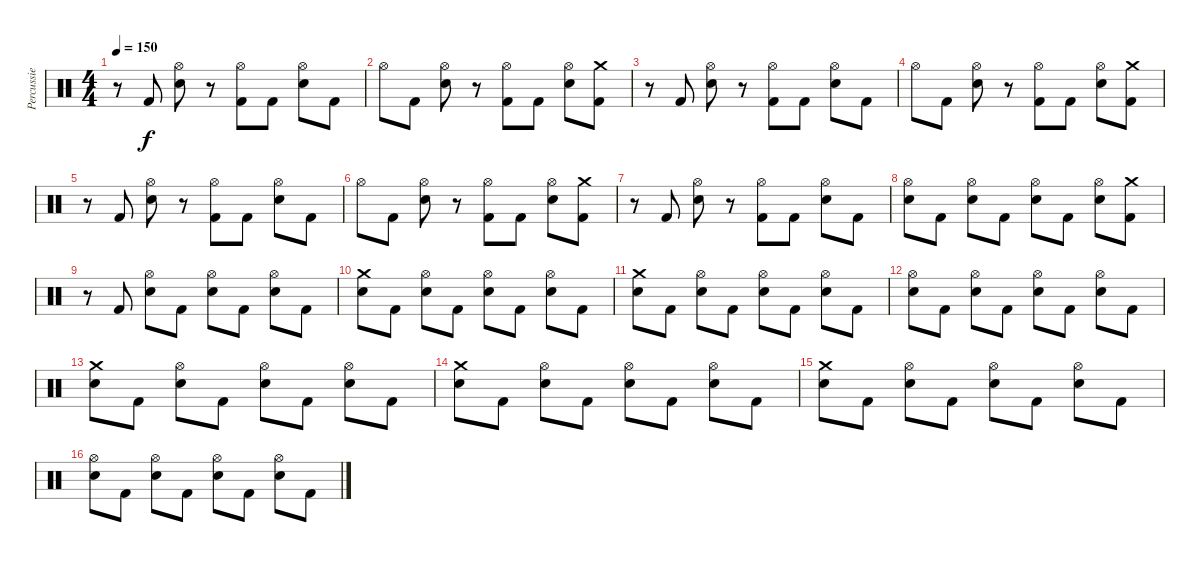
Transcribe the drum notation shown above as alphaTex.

\track ("Percussie" "Percussie") {instrument percussion}
\staff {score}
\articulation defaults
\ts (4 4)
\tempo 150
\clef neutral
\ks c
r.8{dy f} "Kick (hit) 2".8 ("Hi-Hat (open)" "Snare (hit) 2").8 r.8 ("Hi-Hat (open)" "Kick (hit) 2").8 "Kick (hit) 2".8 ("Hi-Hat (open)" "Snare (hit) 2").8 "Kick (hit) 2".8 |
"Hi-Hat (open)".8 "Kick (hit) 2".8 ("Hi-Hat (open)" "Snare (hit) 2").8 r.8 ("Hi-Hat (open)" "Kick (hit) 2").8 "Kick (hit) 2".8 ("Hi-Hat (open)" "Snare (hit) 2").8 ("Crash medium (hit)" "Kick (hit) 2").8 |
r.8 "Kick (hit) 2".8 ("Hi-Hat (open)" "Snare (hit) 2").8 r.8 ("Hi-Hat (open)" "Kick (hit) 2").8 "Kick (hit) 2".8 ("Hi-Hat (open)" "Snare (hit) 2").8 "Kick (hit) 2".8 |
"Hi-Hat (open)".8 "Kick (hit) 2".8 ("Hi-Hat (open)" "Snare (hit) 2").8 r.8 ("Hi-Hat (open)" "Kick (hit) 2").8 "Kick (hit) 2".8 ("Hi-Hat (open)" "Snare (hit) 2").8 ("Crash medium (hit)" "Kick (hit) 2").8 |
r.8 "Kick (hit) 2".8 ("Hi-Hat (open)" "Snare (hit) 2").8 r.8 ("Hi-Hat (open)" "Kick (hit) 2").8 "Kick (hit) 2".8 ("Hi-Hat (open)" "Snare (hit) 2").8 "Kick (hit) 2".8 |
"Hi-Hat (open)".8 "Kick (hit) 2".8 ("Hi-Hat (open)" "Snare (hit) 2").8 r.8 ("Hi-Hat (open)" "Kick (hit) 2").8 "Kick (hit) 2".8 ("Hi-Hat (open)" "Snare (hit) 2").8 ("Crash medium (hit)" "Kick (hit) 2").8 |
r.8 "Kick (hit) 2".8 ("Hi-Hat (open)" "Snare (hit) 2").8 r.8 ("Hi-Hat (open)" "Kick (hit) 2").8 "Kick (hit) 2".8 ("Hi-Hat (open)" "Snare (hit) 2").8 "Kick (hit) 2".8 |
("Hi-Hat (open)" "Snare (hit) 2").8 "Kick (hit) 2".8 ("Hi-Hat (open)" "Snare (hit) 2").8 "Kick (hit) 2".8 ("Hi-Hat (open)" "Snare (hit) 2").8 "Kick (hit) 2".8 ("Hi-Hat (open)" "Snare (hit) 2").8 ("Crash medium (hit)" "Kick (hit) 2").8 |
r.8 "Kick (hit) 2".8 ("Hi-Hat (open)" "Snare (hit) 2").8 "Kick (hit) 2".8 ("Hi-Hat (open)" "Snare (hit) 2").8 "Kick (hit) 2".8 ("Hi-Hat (open)" "Snare (hit) 2").8 "Kick (hit) 2".8 |
("Crash medium (hit)" "Snare (hit) 2").8 "Kick (hit) 2".8 ("Hi-Hat (open)" "Snare (hit) 2").8 "Kick (hit) 2".8 ("Hi-Hat (open)" "Snare (hit) 2").8 "Kick (hit) 2".8 ("Hi-Hat (open)" "Snare (hit) 2").8 "Kick (hit) 2".8 |
("Crash medium (hit)" "Snare (hit) 2").8 "Kick (hit) 2".8 ("Hi-Hat (open)" "Snare (hit) 2").8 "Kick (hit) 2".8 ("Hi-Hat (open)" "Snare (hit) 2").8 "Kick (hit) 2".8 ("Hi-Hat (open)" "Snare (hit) 2").8 "Kick (hit) 2".8 |
("Hi-Hat (open)" "Snare (hit) 2").8 "Kick (hit) 2".8 ("Hi-Hat (open)" "Snare (hit) 2").8 "Kick (hit) 2".8 ("Hi-Hat (open)" "Snare (hit) 2").8 "Kick (hit) 2".8 ("Hi-Hat (open)" "Snare (hit) 2").8 "Kick (hit) 2".8 |
("Crash medium (hit)" "Snare (hit) 2").8 "Kick (hit) 2".8 ("Hi-Hat (open)" "Snare (hit) 2").8 "Kick (hit) 2".8 ("Hi-Hat (open)" "Snare (hit) 2").8 "Kick (hit) 2".8 ("Hi-Hat (open)" "Snare (hit) 2").8 "Kick (hit) 2".8 |
("Crash medium (hit)" "Snare (hit) 2").8 "Kick (hit) 2".8 ("Hi-Hat (open)" "Snare (hit) 2").8 "Kick (hit) 2".8 ("Hi-Hat (open)" "Snare (hit) 2").8 "Kick (hit) 2".8 ("Hi-Hat (open)" "Snare (hit) 2").8 "Kick (hit) 2".8 |
("Crash medium (hit)" "Snare (hit) 2").8 "Kick (hit) 2".8 ("Hi-Hat (open)" "Snare (hit) 2").8 "Kick (hit) 2".8 ("Hi-Hat (open)" "Snare (hit) 2").8 "Kick (hit) 2".8 ("Hi-Hat (open)" "Snare (hit) 2").8 "Kick (hit) 2".8 |
("Hi-Hat (open)" "Snare (hit) 2").8 "Kick (hit) 2".8 ("Hi-Hat (open)" "Snare (hit) 2").8 "Kick (hit) 2".8 ("Hi-Hat (open)" "Snare (hit) 2").8 "Kick (hit) 2".8 ("Hi-Hat (open)" "Snare (hit) 2").8 "Kick (hit) 2".8
